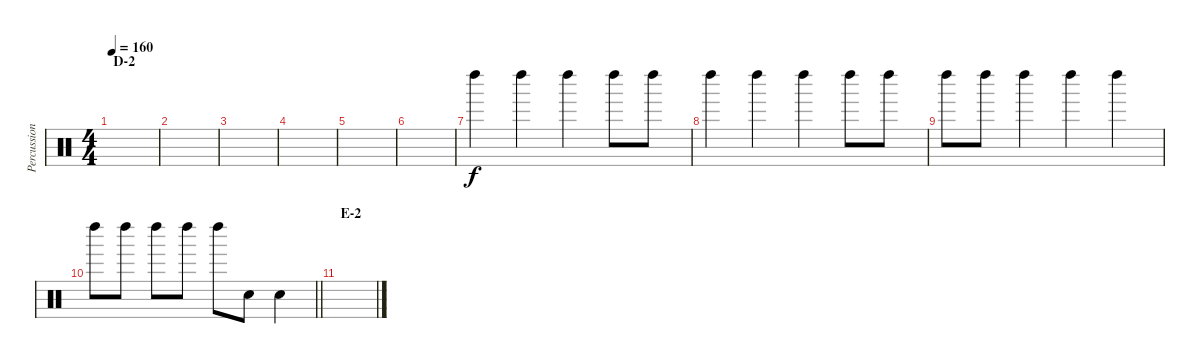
\track ("Percussion A (Tainaka Ritsu)" "Percussion") {instrument percussion}
\staff {score}
\articulation defaults
\ts (4 4)
\section ("" "D-2")
\tempo 160
\clef neutral
\ks c
|
|
|
|
|
|
"Left Maraca (hit)".4 "Left Maraca (hit)".4 "Left Maraca (hit)".4 "Left Maraca (hit)".8 "Left Maraca (hit)".8 |
"Left Maraca (hit)".4 "Left Maraca (hit)".4 "Left Maraca (hit)".4 "Left Maraca (hit)".8 "Left Maraca (hit)".8 |
"Left Maraca (hit)".8 "Left Maraca (hit)".8 "Left Maraca (hit)".4 "Left Maraca (hit)".4 "Left Maraca (hit)".4 |
\barLineRight lightlight "Left Maraca (hit)".8 "Left Maraca (hit)".8 "Left Maraca (hit)".8 "Left Maraca (hit)".8 "Left Maraca (hit)".8 "Hand Clap (hit)".8 "Hand Clap (hit)".4
|
\section ("" "E-2")
